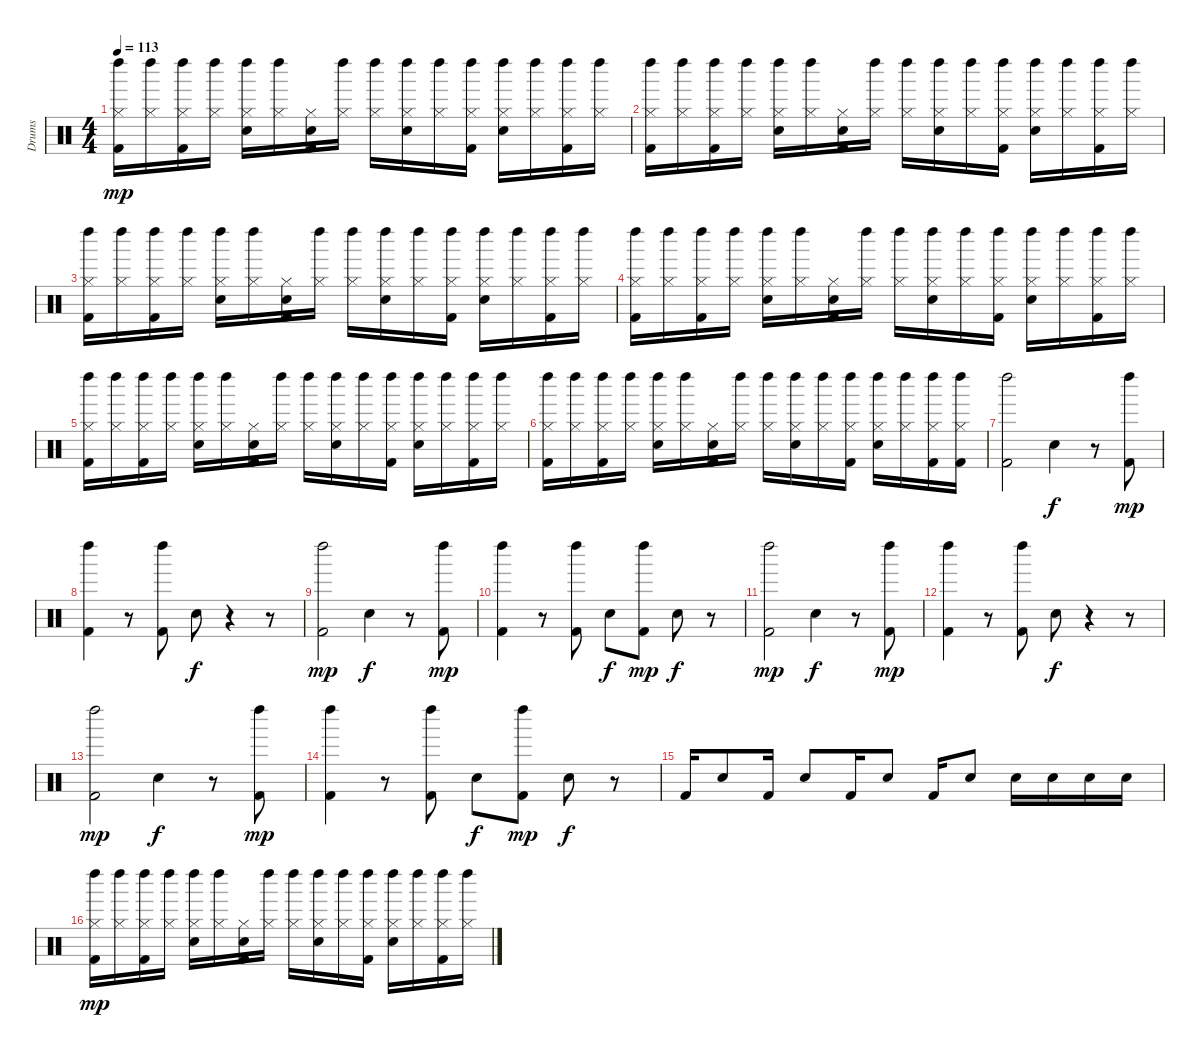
\track ("Drums" "Drums") {instrument percussion}
\staff {score}
\articulation defaults
\ts (4 4)
\tempo 113
\clef neutral
\ks c
("Hi-Hat (closed)" "Left Maraca (hit)" "Kick (hit) 2").16{dy mp} ("Hi-Hat (closed)" "Left Maraca (hit)").16 ("Hi-Hat (closed)" "Left Maraca (hit)" "Kick (hit) 2").16 ("Hi-Hat (closed)" "Left Maraca (hit)").16 ("Hi-Hat (closed)" "Left Maraca (hit)" "Snare (hit) 2").16 ("Hi-Hat (closed)" "Left Maraca (hit)").16 ("Hi-Hat (closed)" "Snare (hit)" "Kick (hit) 2").16 ("Hi-Hat (closed)" "Left Maraca (hit)").16 ("Hi-Hat (closed)" "Left Maraca (hit)").16 ("Hi-Hat (closed)" "Left Maraca (hit)" "Snare (hit) 2").16 ("Hi-Hat (closed)" "Left Maraca (hit)").16 ("Hi-Hat (closed)" "Left Maraca (hit)" "Kick (hit) 2").16 ("Hi-Hat (closed)" "Left Maraca (hit)" "Snare (hit) 2").16 ("Hi-Hat (closed)" "Left Maraca (hit)").16 ("Hi-Hat (closed)" "Left Maraca (hit)" "Kick (hit) 2").16 ("Hi-Hat (closed)" "Left Maraca (hit)").16 |
("Hi-Hat (closed)" "Left Maraca (hit)" "Kick (hit) 2").16 ("Hi-Hat (closed)" "Left Maraca (hit)").16 ("Hi-Hat (closed)" "Left Maraca (hit)" "Kick (hit) 2").16 ("Hi-Hat (closed)" "Left Maraca (hit)").16 ("Hi-Hat (closed)" "Left Maraca (hit)" "Snare (hit) 2").16 ("Hi-Hat (closed)" "Left Maraca (hit)").16 ("Hi-Hat (closed)" "Snare (hit)" "Kick (hit) 2").16 ("Hi-Hat (closed)" "Left Maraca (hit)").16 ("Hi-Hat (closed)" "Left Maraca (hit)").16 ("Hi-Hat (closed)" "Left Maraca (hit)" "Snare (hit) 2").16 ("Hi-Hat (closed)" "Left Maraca (hit)").16 ("Hi-Hat (closed)" "Left Maraca (hit)" "Kick (hit) 2").16 ("Hi-Hat (closed)" "Left Maraca (hit)" "Snare (hit) 2").16 ("Hi-Hat (closed)" "Left Maraca (hit)").16 ("Hi-Hat (closed)" "Left Maraca (hit)" "Kick (hit) 2").16 ("Hi-Hat (closed)" "Left Maraca (hit)").16 |
("Hi-Hat (closed)" "Left Maraca (hit)" "Kick (hit) 2").16 ("Hi-Hat (closed)" "Left Maraca (hit)").16 ("Hi-Hat (closed)" "Left Maraca (hit)" "Kick (hit) 2").16 ("Hi-Hat (closed)" "Left Maraca (hit)").16 ("Hi-Hat (closed)" "Left Maraca (hit)" "Snare (hit) 2").16 ("Hi-Hat (closed)" "Left Maraca (hit)").16 ("Hi-Hat (closed)" "Snare (hit)" "Kick (hit) 2").16 ("Hi-Hat (closed)" "Left Maraca (hit)").16 ("Hi-Hat (closed)" "Left Maraca (hit)").16 ("Hi-Hat (closed)" "Left Maraca (hit)" "Snare (hit) 2").16 ("Hi-Hat (closed)" "Left Maraca (hit)").16 ("Hi-Hat (closed)" "Left Maraca (hit)" "Kick (hit) 2").16 ("Hi-Hat (closed)" "Left Maraca (hit)" "Snare (hit) 2").16 ("Hi-Hat (closed)" "Left Maraca (hit)").16 ("Hi-Hat (closed)" "Left Maraca (hit)" "Kick (hit) 2").16 ("Hi-Hat (closed)" "Left Maraca (hit)").16 |
("Hi-Hat (closed)" "Left Maraca (hit)" "Kick (hit) 2").16 ("Hi-Hat (closed)" "Left Maraca (hit)").16 ("Hi-Hat (closed)" "Left Maraca (hit)" "Kick (hit) 2").16 ("Hi-Hat (closed)" "Left Maraca (hit)").16 ("Hi-Hat (closed)" "Left Maraca (hit)" "Snare (hit) 2").16 ("Hi-Hat (closed)" "Left Maraca (hit)").16 ("Hi-Hat (closed)" "Snare (hit)" "Kick (hit) 2").16 ("Hi-Hat (closed)" "Left Maraca (hit)").16 ("Hi-Hat (closed)" "Left Maraca (hit)").16 ("Hi-Hat (closed)" "Left Maraca (hit)" "Snare (hit) 2").16 ("Hi-Hat (closed)" "Left Maraca (hit)").16 ("Hi-Hat (closed)" "Left Maraca (hit)" "Kick (hit) 2").16 ("Hi-Hat (closed)" "Left Maraca (hit)" "Snare (hit) 2").16 ("Hi-Hat (closed)" "Left Maraca (hit)").16 ("Hi-Hat (closed)" "Left Maraca (hit)" "Kick (hit) 2").16 ("Hi-Hat (closed)" "Left Maraca (hit)").16 |
("Hi-Hat (closed)" "Left Maraca (hit)" "Kick (hit) 2").16 ("Hi-Hat (closed)" "Left Maraca (hit)").16 ("Hi-Hat (closed)" "Left Maraca (hit)" "Kick (hit) 2").16 ("Hi-Hat (closed)" "Left Maraca (hit)").16 ("Hi-Hat (closed)" "Left Maraca (hit)" "Snare (hit) 2").16 ("Hi-Hat (closed)" "Left Maraca (hit)").16 ("Hi-Hat (closed)" "Snare (hit)" "Kick (hit) 2").16 ("Hi-Hat (closed)" "Left Maraca (hit)").16 ("Hi-Hat (closed)" "Left Maraca (hit)").16 ("Hi-Hat (closed)" "Left Maraca (hit)" "Snare (hit) 2").16 ("Hi-Hat (closed)" "Left Maraca (hit)").16 ("Hi-Hat (closed)" "Left Maraca (hit)" "Kick (hit) 2").16 ("Hi-Hat (closed)" "Left Maraca (hit)" "Snare (hit) 2").16 ("Hi-Hat (closed)" "Left Maraca (hit)").16 ("Hi-Hat (closed)" "Left Maraca (hit)" "Kick (hit) 2").16 ("Hi-Hat (closed)" "Left Maraca (hit)").16 |
("Hi-Hat (closed)" "Left Maraca (hit)" "Kick (hit) 2").16 ("Hi-Hat (closed)" "Left Maraca (hit)").16 ("Hi-Hat (closed)" "Left Maraca (hit)" "Kick (hit) 2").16 ("Hi-Hat (closed)" "Left Maraca (hit)").16 ("Hi-Hat (closed)" "Left Maraca (hit)" "Snare (hit) 2").16 ("Hi-Hat (closed)" "Left Maraca (hit)").16 ("Hi-Hat (closed)" "Snare (hit)" "Kick (hit) 2").16 ("Hi-Hat (closed)" "Left Maraca (hit)").16 ("Hi-Hat (closed)" "Left Maraca (hit)").16 ("Hi-Hat (closed)" "Left Maraca (hit)" "Snare (hit) 2").16 ("Hi-Hat (closed)" "Left Maraca (hit)").16 ("Hi-Hat (closed)" "Left Maraca (hit)" "Kick (hit) 2").16 ("Hi-Hat (closed)" "Left Maraca (hit)" "Snare (hit) 2").16 ("Hi-Hat (closed)" "Left Maraca (hit)").16 ("Hi-Hat (closed)" "Left Maraca (hit)" "Kick (hit) 2").16 ("Hi-Hat (closed)" "Left Maraca (hit)" "Kick (hit) 2").16 |
("Left Maraca (hit)" "Kick (hit) 2").2 "Snare (hit) 2".4{dy f} r.8 ("Left Maraca (hit)" "Kick (hit) 2").8{dy mp} |
("Left Maraca (hit)" "Kick (hit) 2").4 r.8 ("Left Maraca (hit)" "Kick (hit) 2").8 "Snare (hit) 2".8{dy f} r.4 r.8 |
("Left Maraca (hit)" "Kick (hit) 2").2{dy mp} "Snare (hit) 2".4{dy f} r.8 ("Left Maraca (hit)" "Kick (hit) 2").8{dy mp} |
("Left Maraca (hit)" "Kick (hit) 2").4 r.8 ("Left Maraca (hit)" "Kick (hit) 2").8 "Snare (hit) 2".8{dy f} ("Left Maraca (hit)" "Kick (hit) 2").8{dy mp} "Snare (hit) 2".8{dy f} r.8 |
("Left Maraca (hit)" "Kick (hit) 2").2{dy mp} "Snare (hit) 2".4{dy f} r.8 ("Left Maraca (hit)" "Kick (hit) 2").8{dy mp} |
("Left Maraca (hit)" "Kick (hit) 2").4 r.8 ("Left Maraca (hit)" "Kick (hit) 2").8 "Snare (hit) 2".8{dy f} r.4 r.8 |
("Left Maraca (hit)" "Kick (hit) 2").2{dy mp} "Snare (hit) 2".4{dy f} r.8 ("Left Maraca (hit)" "Kick (hit) 2").8{dy mp} |
("Left Maraca (hit)" "Kick (hit) 2").4 r.8 ("Left Maraca (hit)" "Kick (hit) 2").8 "Snare (hit) 2".8{dy f} ("Left Maraca (hit)" "Kick (hit) 2").8{dy mp} "Snare (hit) 2".8{dy f} r.8 |
"Kick (hit) 2".16 "Snare (hit) 2".8 "Kick (hit) 2".16 "Snare (hit) 2".8 "Kick (hit) 2".16 "Snare (hit) 2".8 "Kick (hit) 2".16 "Snare (hit) 2".8 "Snare (hit) 2".16 "Snare (hit) 2".16 "Snare (hit) 2".16 "Snare (hit) 2".16 |
("Hi-Hat (closed)" "Left Maraca (hit)" "Kick (hit) 2").16{dy mp} ("Hi-Hat (closed)" "Left Maraca (hit)").16 ("Hi-Hat (closed)" "Left Maraca (hit)" "Kick (hit) 2").16 ("Hi-Hat (closed)" "Left Maraca (hit)").16 ("Hi-Hat (closed)" "Left Maraca (hit)" "Snare (hit) 2").16 ("Hi-Hat (closed)" "Left Maraca (hit)").16 ("Hi-Hat (closed)" "Snare (hit)" "Kick (hit) 2").16 ("Hi-Hat (closed)" "Left Maraca (hit)").16 ("Hi-Hat (closed)" "Left Maraca (hit)").16 ("Hi-Hat (closed)" "Left Maraca (hit)" "Snare (hit) 2").16 ("Hi-Hat (closed)" "Left Maraca (hit)").16 ("Hi-Hat (closed)" "Left Maraca (hit)" "Kick (hit) 2").16 ("Hi-Hat (closed)" "Left Maraca (hit)" "Snare (hit) 2").16 ("Hi-Hat (closed)" "Left Maraca (hit)").16 ("Hi-Hat (closed)" "Left Maraca (hit)" "Kick (hit) 2").16 ("Hi-Hat (closed)" "Left Maraca (hit)").16
